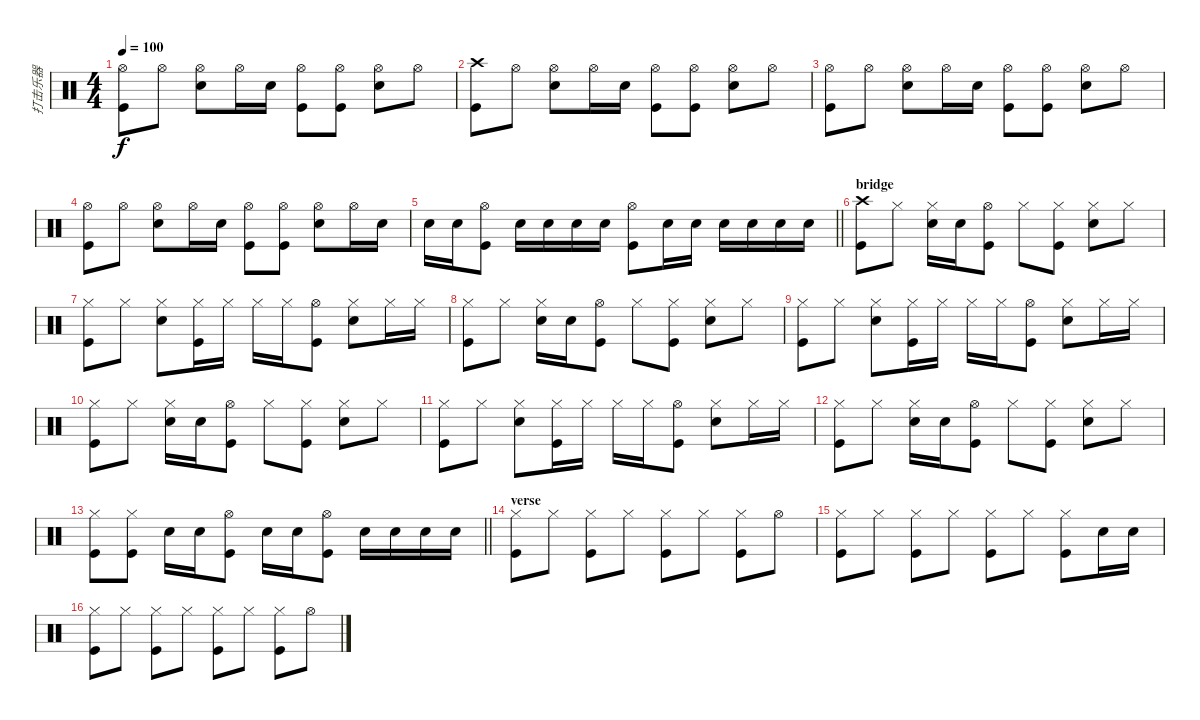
\track ("打击乐器" "打击乐器") {instrument percussion}
\staff {score}
\articulation defaults
\ts (4 4)
\tempo 100
\clef neutral
\ks c
("Hi-Hat (open)" "Kick (hit)").8{dy f} "Hi-Hat (open)".8 ("Hi-Hat (open)" "Electric Snare (hit)").8 "Hi-Hat (open)".16 "Electric Snare (hit)".16 ("Hi-Hat (open)" "Kick (hit)").8 ("Hi-Hat (open)" "Kick (hit)").8 ("Hi-Hat (open)" "Electric Snare (hit)").8 "Hi-Hat (open)".8 |
("Crash high (hit)" "Kick (hit)").8 "Hi-Hat (open)".8 ("Hi-Hat (open)" "Electric Snare (hit)").8 "Hi-Hat (open)".16 "Electric Snare (hit)".16 ("Hi-Hat (open)" "Kick (hit)").8 ("Hi-Hat (open)" "Kick (hit)").8 ("Hi-Hat (open)" "Electric Snare (hit)").8 "Hi-Hat (open)".8 |
("Hi-Hat (open)" "Kick (hit)").8 "Hi-Hat (open)".8 ("Hi-Hat (open)" "Electric Snare (hit)").8 "Hi-Hat (open)".16 "Electric Snare (hit)".16 ("Hi-Hat (open)" "Kick (hit)").8 ("Hi-Hat (open)" "Kick (hit)").8 ("Hi-Hat (open)" "Electric Snare (hit)").8 "Hi-Hat (open)".8 |
("Hi-Hat (open)" "Kick (hit)").8 "Hi-Hat (open)".8 ("Hi-Hat (open)" "Electric Snare (hit)").8 "Hi-Hat (open)".16 "Electric Snare (hit)".16 ("Hi-Hat (open)" "Kick (hit)").8 ("Hi-Hat (open)" "Kick (hit)").8 ("Hi-Hat (open)" "Electric Snare (hit)").8 "Hi-Hat (open)".16 "Electric Snare (hit)".16 |
\barLineRight lightlight "Electric Snare (hit)".16 "Electric Snare (hit)".16
("Hi-Hat (open)" "Kick (hit)").8 "Electric Snare (hit)".16 "Electric Snare (hit)".16 "Electric Snare (hit)".16 "Electric Snare (hit)".16 ("Hi-Hat (open)" "Kick (hit)").8 "Electric Snare (hit)".16 "Electric Snare (hit)".16 "Electric Snare (hit)".16 "Electric Snare (hit)".16 "Electric Snare (hit)".16 "Electric Snare (hit)".16 |
\section ("" "bridge")
("Crash high (hit)" "Kick (hit)").8 "Hi-Hat (closed)".8 ("Hi-Hat (closed)" "Electric Snare (hit)").16 "Electric Snare (hit)".16 ("Hi-Hat (open)" "Kick (hit)").8 "Hi-Hat (closed)".8 ("Hi-Hat (closed)" "Kick (hit)").8 ("Hi-Hat (closed)" "Electric Snare (hit)").8 "Hi-Hat (closed)".8 |
("Hi-Hat (closed)" "Kick (hit)").8 "Hi-Hat (closed)".8 ("Hi-Hat (closed)" "Electric Snare (hit)").8 ("Hi-Hat (closed)" "Kick (hit)").16 "Hi-Hat (closed)".16 "Hi-Hat (closed)".16 "Hi-Hat (closed)".16 ("Hi-Hat (open)" "Kick (hit)").8 ("Hi-Hat (closed)" "Electric Snare (hit)").8 "Hi-Hat (closed)".16 "Hi-Hat (closed)".16 |
("Hi-Hat (closed)" "Kick (hit)").8 "Hi-Hat (closed)".8 ("Hi-Hat (closed)" "Electric Snare (hit)").16 "Electric Snare (hit)".16 ("Hi-Hat (open)" "Kick (hit)").8 "Hi-Hat (closed)".8 ("Hi-Hat (closed)" "Kick (hit)").8 ("Hi-Hat (closed)" "Electric Snare (hit)").8 "Hi-Hat (closed)".8 |
("Hi-Hat (closed)" "Kick (hit)").8 "Hi-Hat (closed)".8 ("Hi-Hat (closed)" "Electric Snare (hit)").8 ("Hi-Hat (closed)" "Kick (hit)").16 "Hi-Hat (closed)".16 "Hi-Hat (closed)".16 "Hi-Hat (closed)".16 ("Hi-Hat (open)" "Kick (hit)").8 ("Hi-Hat (closed)" "Electric Snare (hit)").8 "Hi-Hat (closed)".16 "Hi-Hat (closed)".16 |
("Hi-Hat (closed)" "Kick (hit)").8 "Hi-Hat (closed)".8 ("Hi-Hat (closed)" "Electric Snare (hit)").16 "Electric Snare (hit)".16 ("Hi-Hat (open)" "Kick (hit)").8 "Hi-Hat (closed)".8 ("Hi-Hat (closed)" "Kick (hit)").8 ("Hi-Hat (closed)" "Electric Snare (hit)").8 "Hi-Hat (closed)".8 |
("Hi-Hat (closed)" "Kick (hit)").8 "Hi-Hat (closed)".8 ("Hi-Hat (closed)" "Electric Snare (hit)").8 ("Hi-Hat (closed)" "Kick (hit)").16 "Hi-Hat (closed)".16 "Hi-Hat (closed)".16 "Hi-Hat (closed)".16 ("Hi-Hat (open)" "Kick (hit)").8 ("Hi-Hat (closed)" "Electric Snare (hit)").8 "Hi-Hat (closed)".16 "Hi-Hat (closed)".16 |
("Hi-Hat (closed)" "Kick (hit)").8 "Hi-Hat (closed)".8 ("Hi-Hat (closed)" "Electric Snare (hit)").16 "Electric Snare (hit)".16 ("Hi-Hat (open)" "Kick (hit)").8 "Hi-Hat (closed)".8 ("Hi-Hat (closed)" "Kick (hit)").8 ("Hi-Hat (closed)" "Electric Snare (hit)").8 "Hi-Hat (closed)".8 |
\barLineRight lightlight
("Hi-Hat (closed)" "Kick (hit)").8 ("Kick (hit)" "Hi-Hat (closed)").8 "Electric Snare (hit)".16 "Electric Snare (hit)".16 ("Hi-Hat (open)" "Kick (hit)").8 "Electric Snare (hit)".16 "Electric Snare (hit)".16 ("Hi-Hat (open)" "Kick (hit)").8 "Electric Snare (hit)".16 "Electric Snare (hit)".16 "Electric Snare (hit)".16 "Electric Snare (hit)".16 |
\section ("" "verse")
("Hi-Hat (closed)" "Kick (hit)").8 "Hi-Hat (closed)".8 ("Hi-Hat (closed)" "Kick (hit)").8 "Hi-Hat (closed)".8 ("Hi-Hat (closed)" "Kick (hit)").8 "Hi-Hat (closed)".8 ("Hi-Hat (closed)" "Kick (hit)").8 "Hi-Hat (open)".8 |
("Hi-Hat (closed)" "Kick (hit)").8 "Hi-Hat (closed)".8 ("Hi-Hat (closed)" "Kick (hit)").8 "Hi-Hat (closed)".8 ("Hi-Hat (closed)" "Kick (hit)").8 "Hi-Hat (closed)".8 ("Hi-Hat (closed)" "Kick (hit)").8 "Electric Snare (hit)".16 "Electric Snare (hit)".16 |
("Hi-Hat (closed)" "Kick (hit)").8 "Hi-Hat (closed)".8 ("Hi-Hat (closed)" "Kick (hit)").8 "Hi-Hat (closed)".8 ("Hi-Hat (closed)" "Kick (hit)").8 "Hi-Hat (closed)".8 ("Hi-Hat (closed)" "Kick (hit)").8 "Hi-Hat (open)".8
